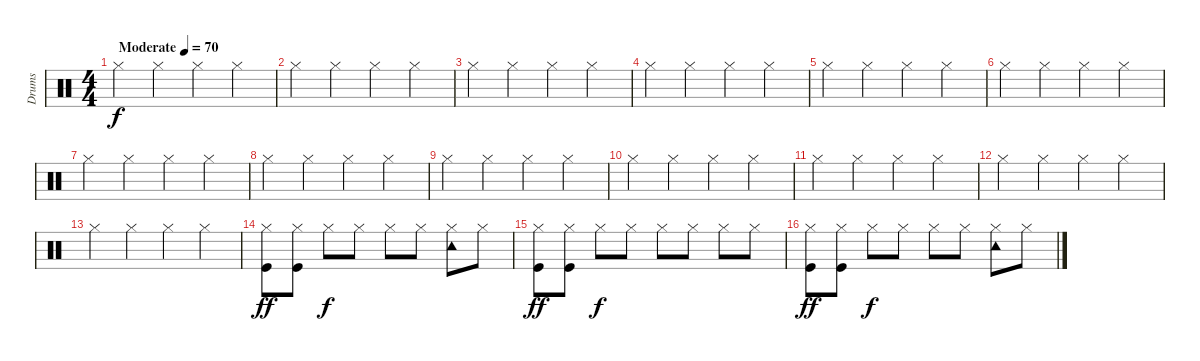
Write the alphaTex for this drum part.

\track ("Drums" "Drums") {instrument percussion}
\staff {score}
\articulation defaults
\ts (4 4)
\tempo (70 "Moderate")
\clef neutral
\ks c "Hi-Hat (closed)".4{dy f} "Hi-Hat (closed)".4 "Hi-Hat (closed)".4 "Hi-Hat (closed)".4
|
"Hi-Hat (closed)".4 "Hi-Hat (closed)".4 "Hi-Hat (closed)".4 "Hi-Hat (closed)".4 |
"Hi-Hat (closed)".4 "Hi-Hat (closed)".4 "Hi-Hat (closed)".4 "Hi-Hat (closed)".4 |
"Hi-Hat (closed)".4 "Hi-Hat (closed)".4 "Hi-Hat (closed)".4 "Hi-Hat (closed)".4 |
"Hi-Hat (closed)".4 "Hi-Hat (closed)".4 "Hi-Hat (closed)".4 "Hi-Hat (closed)".4 |
"Hi-Hat (closed)".4 "Hi-Hat (closed)".4 "Hi-Hat (closed)".4 "Hi-Hat (closed)".4 |
"Hi-Hat (closed)".4 "Hi-Hat (closed)".4 "Hi-Hat (closed)".4 "Hi-Hat (closed)".4 |
"Hi-Hat (closed)".4 "Hi-Hat (closed)".4 "Hi-Hat (closed)".4 "Hi-Hat (closed)".4 |
"Hi-Hat (closed)".4 "Hi-Hat (closed)".4 "Hi-Hat (closed)".4 "Hi-Hat (closed)".4 |
"Hi-Hat (closed)".4 "Hi-Hat (closed)".4 "Hi-Hat (closed)".4 "Hi-Hat (closed)".4 |
"Hi-Hat (closed)".4 "Hi-Hat (closed)".4 "Hi-Hat (closed)".4 "Hi-Hat (closed)".4 |
"Hi-Hat (closed)".4 "Hi-Hat (closed)".4 "Hi-Hat (closed)".4 "Hi-Hat (closed)".4 |
"Hi-Hat (closed)".4 "Hi-Hat (closed)".4 "Hi-Hat (closed)".4 "Hi-Hat (closed)".4 |
("Hi-Hat (closed)" "Kick (hit)").8{dy ff} ("Hi-Hat (closed)" "Kick (hit)").8 "Hi-Hat (closed)".8{dy f} "Hi-Hat (closed)".8 "Hi-Hat (closed)".8 "Hi-Hat (closed)".8 ("Hi-Hat (closed)" "Tambourine (hit)").8 "Hi-Hat (closed)".8 |
("Hi-Hat (closed)" "Kick (hit)").8{dy ff} ("Hi-Hat (closed)" "Kick (hit)").8 "Hi-Hat (closed)".8{dy f} "Hi-Hat (closed)".8 "Hi-Hat (closed)".8 "Hi-Hat (closed)".8 "Hi-Hat (closed)".8 "Hi-Hat (closed)".8 |
("Hi-Hat (closed)" "Kick (hit)").8{dy ff} ("Hi-Hat (closed)" "Kick (hit)").8 "Hi-Hat (closed)".8{dy f} "Hi-Hat (closed)".8 "Hi-Hat (closed)".8 "Hi-Hat (closed)".8 ("Hi-Hat (closed)" "Tambourine (hit)").8 "Hi-Hat (closed)".8
